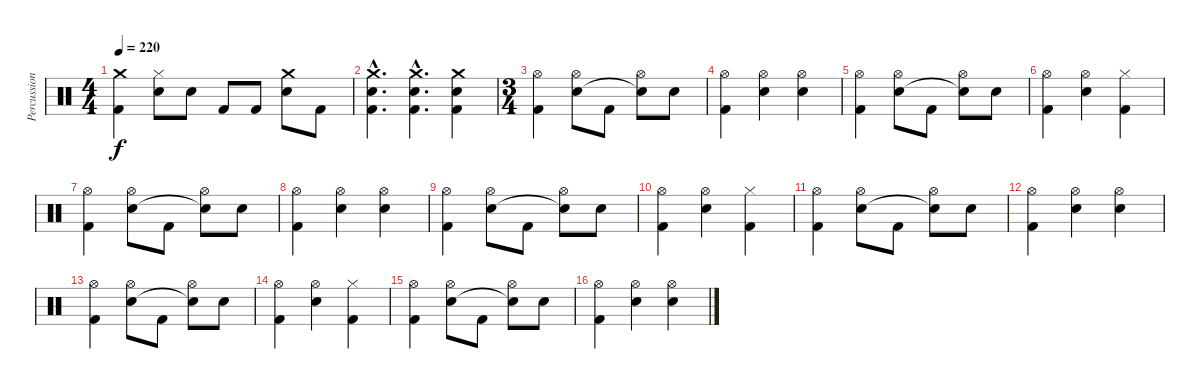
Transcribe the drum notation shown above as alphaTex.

\track ("Percussion" "Percussion") {instrument percussion}
\staff {score}
\articulation defaults
\ts (4 4)
\tempo 220
\clef neutral
\ks c
("Crash medium (hit)" "Kick (hit) 2").4{dy f} ("Hi-Hat (closed)" "Snare (hit) 2").8 "Snare (hit) 2".8 "Kick (hit) 2".8 "Kick (hit) 2".8 ("Crash medium (hit)" "Snare (hit) 2").8 "Kick (hit) 2".8 |
("Crash medium (hit)"{hac} "Snare (hit) 2"{hac} "Kick (hit) 2"{hac}).4{d} ("Crash medium (hit)"{hac} "Snare (hit) 2"{hac} "Kick (hit) 2"{hac}).4{d} ("Crash medium (hit)" "Snare (hit) 2" "Kick (hit) 2").4 |
\ts (3 4)
("Hi-Hat (open)" "Kick (hit) 2").4 ("Hi-Hat (open)" "Snare (hit) 2").8 "Kick (hit) 2".8 ("Hi-Hat (open)" "Snare (hit) 2"{t}).8 "Snare (hit) 2".8 |
("Hi-Hat (open)" "Kick (hit) 2").4 ("Hi-Hat (open)" "Snare (hit) 2").4 ("Hi-Hat (open)" "Snare (hit) 2").4 |
("Hi-Hat (open)" "Kick (hit) 2").4 ("Hi-Hat (open)" "Snare (hit) 2").8 "Kick (hit) 2".8 ("Hi-Hat (open)" "Snare (hit) 2"{t}).8 "Snare (hit) 2".8 |
("Hi-Hat (open)" "Kick (hit) 2").4 ("Hi-Hat (open)" "Snare (hit) 2").4 ("Hi-Hat (closed)" "Kick (hit) 2").4 |
("Hi-Hat (open)" "Kick (hit) 2").4 ("Hi-Hat (open)" "Snare (hit) 2").8 "Kick (hit) 2".8 ("Hi-Hat (open)" "Snare (hit) 2"{t}).8 "Snare (hit) 2".8 |
("Hi-Hat (open)" "Kick (hit) 2").4 ("Hi-Hat (open)" "Snare (hit) 2").4 ("Hi-Hat (open)" "Snare (hit) 2").4 |
("Hi-Hat (open)" "Kick (hit) 2").4 ("Hi-Hat (open)" "Snare (hit) 2").8 "Kick (hit) 2".8 ("Hi-Hat (open)" "Snare (hit) 2"{t}).8 "Snare (hit) 2".8 |
("Hi-Hat (open)" "Kick (hit) 2").4 ("Hi-Hat (open)" "Snare (hit) 2").4 ("Hi-Hat (closed)" "Kick (hit) 2").4 |
("Hi-Hat (open)" "Kick (hit) 2").4 ("Hi-Hat (open)" "Snare (hit) 2").8 "Kick (hit) 2".8 ("Hi-Hat (open)" "Snare (hit) 2"{t}).8 "Snare (hit) 2".8 |
("Hi-Hat (open)" "Kick (hit) 2").4 ("Hi-Hat (open)" "Snare (hit) 2").4 ("Hi-Hat (open)" "Snare (hit) 2").4 |
("Hi-Hat (open)" "Kick (hit) 2").4 ("Hi-Hat (open)" "Snare (hit) 2").8 "Kick (hit) 2".8 ("Hi-Hat (open)" "Snare (hit) 2"{t}).8 "Snare (hit) 2".8 |
("Hi-Hat (open)" "Kick (hit) 2").4 ("Hi-Hat (open)" "Snare (hit) 2").4 ("Hi-Hat (closed)" "Kick (hit) 2").4 |
("Hi-Hat (open)" "Kick (hit) 2").4 ("Hi-Hat (open)" "Snare (hit) 2").8 "Kick (hit) 2".8 ("Hi-Hat (open)" "Snare (hit) 2"{t}).8 "Snare (hit) 2".8 |
("Hi-Hat (open)" "Kick (hit) 2").4 ("Hi-Hat (open)" "Snare (hit) 2").4 ("Hi-Hat (open)" "Snare (hit) 2").4
